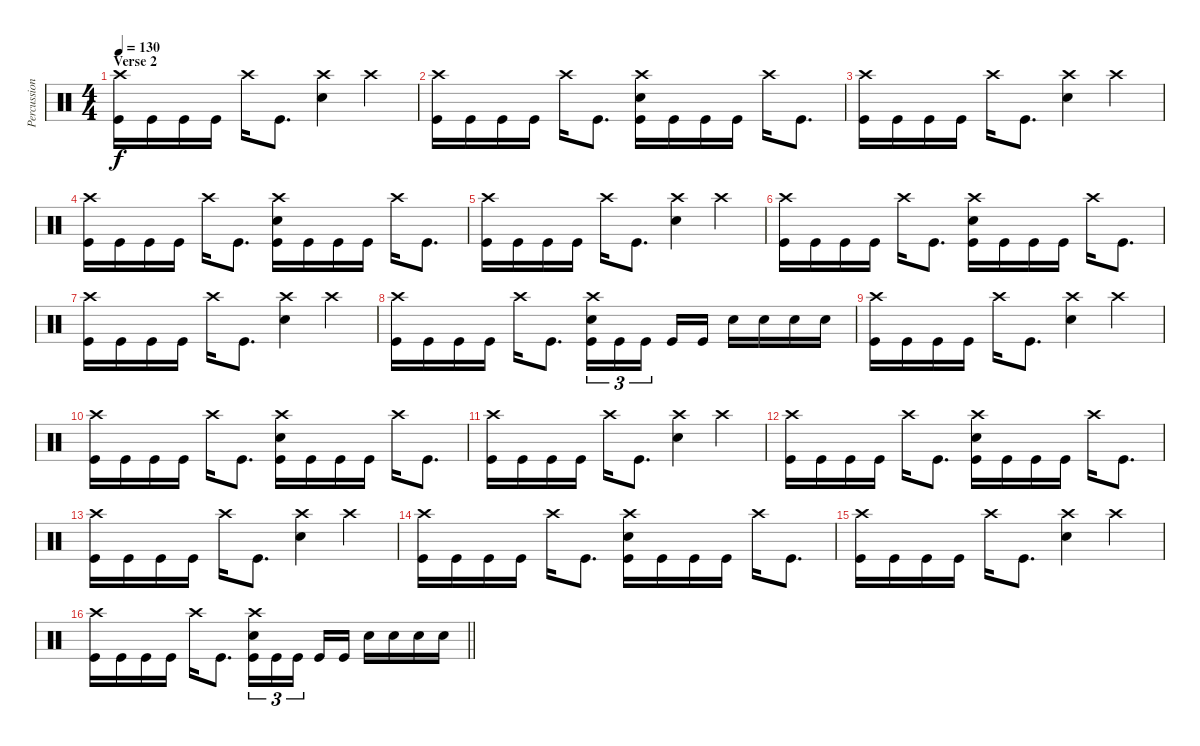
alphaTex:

\track ("Percussion" "Percussion") {instrument percussion}
\staff {score}
\articulation defaults
\ts (4 4)
\section ("" "Verse 2")
\tempo 130
\clef neutral
\ks c
("Crash high (hit)" "Kick (hit)").16{dy f} "Kick (hit)".16 "Kick (hit)".16 "Kick (hit)".16 "Crash high (hit)".16 "Kick (hit)".8{d} ("Crash high (hit)" "Snare (hit) 2").4 "Crash high (hit)".4 |
("Crash high (hit)" "Kick (hit)").16 "Kick (hit)".16 "Kick (hit)".16 "Kick (hit)".16 "Crash high (hit)".16 "Kick (hit)".8{d} ("Crash high (hit)" "Snare (hit) 2" "Kick (hit)").16 "Kick (hit)".16 "Kick (hit)".16 "Kick (hit)".16 "Crash high (hit)".16 "Kick (hit)".8{d} |
("Crash high (hit)" "Kick (hit)").16 "Kick (hit)".16 "Kick (hit)".16 "Kick (hit)".16 "Crash high (hit)".16 "Kick (hit)".8{d} ("Crash high (hit)" "Snare (hit) 2").4 "Crash high (hit)".4 |
("Crash high (hit)" "Kick (hit)").16 "Kick (hit)".16 "Kick (hit)".16 "Kick (hit)".16 "Crash high (hit)".16 "Kick (hit)".8{d} ("Crash high (hit)" "Snare (hit) 2" "Kick (hit)").16 "Kick (hit)".16 "Kick (hit)".16 "Kick (hit)".16 "Crash high (hit)".16 "Kick (hit)".8{d} |
("Crash high (hit)" "Kick (hit)").16 "Kick (hit)".16 "Kick (hit)".16 "Kick (hit)".16 "Crash high (hit)".16 "Kick (hit)".8{d} ("Crash high (hit)" "Snare (hit) 2").4 "Crash high (hit)".4 |
("Crash high (hit)" "Kick (hit)").16 "Kick (hit)".16 "Kick (hit)".16 "Kick (hit)".16 "Crash high (hit)".16 "Kick (hit)".8{d} ("Crash high (hit)" "Snare (hit) 2" "Kick (hit)").16 "Kick (hit)".16 "Kick (hit)".16 "Kick (hit)".16 "Crash high (hit)".16 "Kick (hit)".8{d} |
("Crash high (hit)" "Kick (hit)").16 "Kick (hit)".16 "Kick (hit)".16 "Kick (hit)".16 "Crash high (hit)".16 "Kick (hit)".8{d} ("Crash high (hit)" "Snare (hit) 2").4 "Crash high (hit)".4 |
("Crash high (hit)" "Kick (hit)").16 "Kick (hit)".16 "Kick (hit)".16 "Kick (hit)".16 "Crash high (hit)".16 "Kick (hit)".8{d} ("Crash high (hit)" "Snare (hit) 2" "Kick (hit)").16{tu (3 2)} "Kick (hit)".16{tu (3 2)} "Kick (hit)".16{tu (3 2) beam splitsecondary} "Kick (hit)".16 "Kick (hit)".16 "Snare (hit) 2".16 "Snare (hit) 2".16 "Snare (hit) 2".16 "Snare (hit) 2".16 |
("Crash high (hit)" "Kick (hit)").16 "Kick (hit)".16 "Kick (hit)".16 "Kick (hit)".16 "Crash high (hit)".16 "Kick (hit)".8{d} ("Crash high (hit)" "Snare (hit) 2").4 "Crash high (hit)".4 |
("Crash high (hit)" "Kick (hit)").16 "Kick (hit)".16 "Kick (hit)".16 "Kick (hit)".16 "Crash high (hit)".16 "Kick (hit)".8{d} ("Crash high (hit)" "Snare (hit) 2" "Kick (hit)").16 "Kick (hit)".16 "Kick (hit)".16 "Kick (hit)".16 "Crash high (hit)".16 "Kick (hit)".8{d} |
("Crash high (hit)" "Kick (hit)").16 "Kick (hit)".16 "Kick (hit)".16 "Kick (hit)".16 "Crash high (hit)".16 "Kick (hit)".8{d} ("Crash high (hit)" "Snare (hit) 2").4 "Crash high (hit)".4 |
("Crash high (hit)" "Kick (hit)").16 "Kick (hit)".16 "Kick (hit)".16 "Kick (hit)".16 "Crash high (hit)".16 "Kick (hit)".8{d} ("Crash high (hit)" "Snare (hit) 2" "Kick (hit)").16 "Kick (hit)".16 "Kick (hit)".16 "Kick (hit)".16 "Crash high (hit)".16 "Kick (hit)".8{d} |
("Crash high (hit)" "Kick (hit)").16 "Kick (hit)".16 "Kick (hit)".16 "Kick (hit)".16 "Crash high (hit)".16 "Kick (hit)".8{d} ("Crash high (hit)" "Snare (hit) 2").4 "Crash high (hit)".4 |
("Crash high (hit)" "Kick (hit)").16 "Kick (hit)".16 "Kick (hit)".16 "Kick (hit)".16 "Crash high (hit)".16 "Kick (hit)".8{d} ("Crash high (hit)" "Snare (hit) 2" "Kick (hit)").16 "Kick (hit)".16 "Kick (hit)".16 "Kick (hit)".16 "Crash high (hit)".16 "Kick (hit)".8{d} |
("Crash high (hit)" "Kick (hit)").16 "Kick (hit)".16 "Kick (hit)".16 "Kick (hit)".16 "Crash high (hit)".16 "Kick (hit)".8{d} ("Crash high (hit)" "Snare (hit) 2").4 "Crash high (hit)".4 |
\barLineRight lightlight
("Crash high (hit)" "Kick (hit)").16 "Kick (hit)".16 "Kick (hit)".16 "Kick (hit)".16 "Crash high (hit)".16 "Kick (hit)".8{d} ("Crash high (hit)" "Snare (hit) 2" "Kick (hit)").16{tu (3 2)} "Kick (hit)".16{tu (3 2)} "Kick (hit)".16{tu (3 2) beam splitsecondary} "Kick (hit)".16 "Kick (hit)".16 "Snare (hit) 2".16 "Snare (hit) 2".16 "Snare (hit) 2".16 "Snare (hit) 2".16
